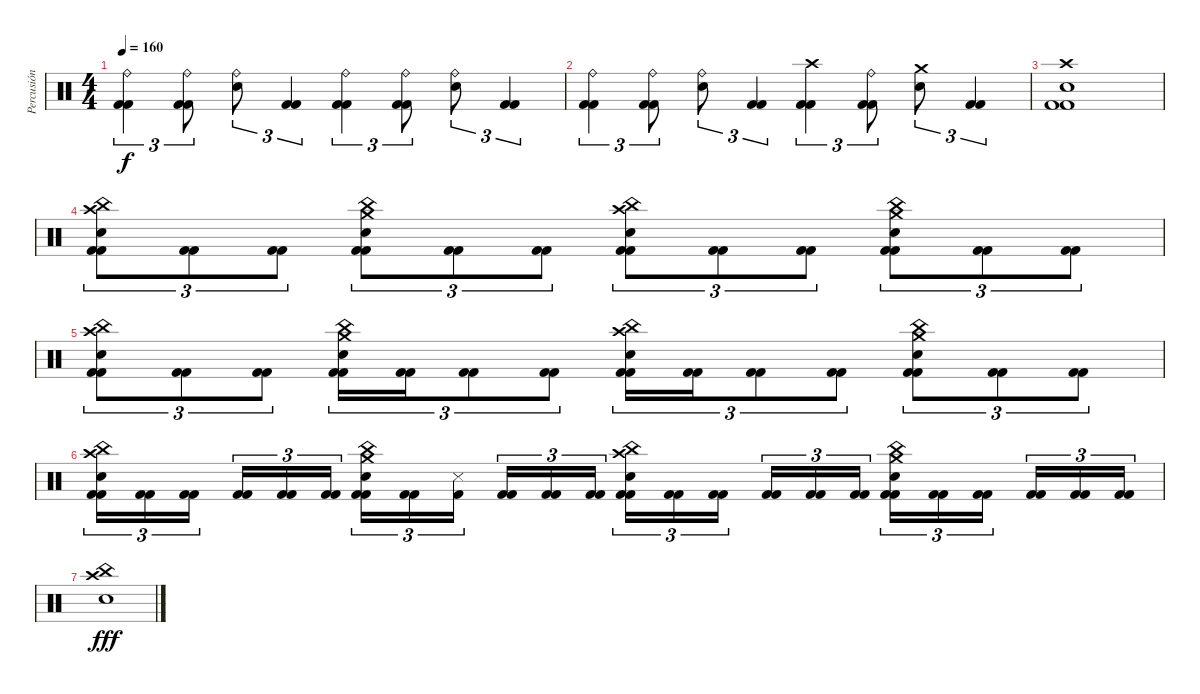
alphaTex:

\track ("Percusión" "Percusión") {instrument percussion}
\staff {score}
\articulation defaults
\ts (4 4)
\tempo 160
\clef neutral
\ks c
("Ride (bell)" "Kick (hit) 2" "Kick (hit) 2").4{tu (3 2) dy f} ("Ride (bell)" "Kick (hit) 2" "Kick (hit) 2").8{tu (3 2)} ("Ride (bell)" "Snare (hit) 2").8{tu (3 2)} ("Kick (hit) 2" "Kick (hit) 2").4{tu (3 2)} ("Ride (bell)" "Kick (hit) 2" "Kick (hit) 2").4{tu (3 2)} ("Ride (bell)" "Kick (hit) 2" "Kick (hit) 2").8{tu (3 2)} ("Ride (bell)" "Snare (hit) 2").8{tu (3 2)} ("Kick (hit) 2" "Kick (hit) 2").4{tu (3 2)} |
("Ride (bell)" "Kick (hit) 2" "Kick (hit) 2").4{tu (3 2)} ("Ride (bell)" "Kick (hit) 2" "Kick (hit) 2").8{tu (3 2)} ("Ride (bell)" "Snare (hit) 2").8{tu (3 2)} ("Kick (hit) 2" "Kick (hit) 2").4{tu (3 2)} ("Crash high (hit)" "Kick (hit) 2" "Kick (hit) 2").4{tu (3 2)} ("Ride (bell)" "Kick (hit) 2" "Kick (hit) 2").8{tu (3 2)} ("Crash medium (hit)" "Snare (hit) 2").8{tu (3 2)} ("Kick (hit) 2" "Kick (hit) 2").4{tu (3 2)} |
("Crash high (hit)" "Snare (hit) 2" "Kick (hit) 2" "Kick (hit) 2").1 |
("Crash high (hit)" "China (hit)" "Snare (hit) 2" "Kick (hit) 2" "Kick (hit) 2").8{tu (3 2)} ("Kick (hit) 2" "Kick (hit) 2").8{tu (3 2)} ("Kick (hit) 2" "Kick (hit) 2").8{tu (3 2)} ("Crash medium (hit)" "China (hit)" "Snare (hit) 2" "Kick (hit) 2" "Kick (hit) 2").8{tu (3 2)} ("Kick (hit) 2" "Kick (hit) 2").8{tu (3 2)} ("Kick (hit) 2" "Kick (hit) 2").8{tu (3 2)} ("Crash high (hit)" "China (hit)" "Snare (hit) 2" "Kick (hit) 2" "Kick (hit) 2").8{tu (3 2)} ("Kick (hit) 2" "Kick (hit) 2").8{tu (3 2)} ("Kick (hit) 2" "Kick (hit) 2").8{tu (3 2)} ("Crash medium (hit)" "China (hit)" "Snare (hit) 2" "Kick (hit) 2" "Kick (hit) 2").8{tu (3 2)} ("Kick (hit) 2" "Kick (hit) 2").8{tu (3 2)} ("Kick (hit) 2" "Kick (hit) 2").8{tu (3 2)} |
("Crash high (hit)" "China (hit)" "Snare (hit) 2" "Kick (hit) 2" "Kick (hit) 2").8{tu (3 2)} ("Kick (hit) 2" "Kick (hit) 2").8{tu (3 2)} ("Kick (hit) 2" "Kick (hit) 2").8{tu (3 2)} ("Crash medium (hit)" "China (hit)" "Snare (hit) 2" "Kick (hit) 2" "Kick (hit) 2").16{tu (3 2)} ("Kick (hit) 2" "Kick (hit) 2").16{tu (3 2)} ("Kick (hit) 2" "Kick (hit) 2").8{tu (3 2)} ("Kick (hit) 2" "Kick (hit) 2").8{tu (3 2)} ("Crash high (hit)" "China (hit)" "Snare (hit) 2" "Kick (hit) 2" "Kick (hit) 2").16{tu (3 2)} ("Kick (hit) 2" "Kick (hit) 2").16{tu (3 2)} ("Kick (hit) 2" "Kick (hit) 2").8{tu (3 2)} ("Kick (hit) 2" "Kick (hit) 2").8{tu (3 2)} ("Crash medium (hit)" "China (hit)" "Snare (hit) 2" "Kick (hit) 2" "Kick (hit) 2").8{tu (3 2)} ("Kick (hit) 2" "Kick (hit) 2").8{tu (3 2)} ("Kick (hit) 2" "Kick (hit) 2").8{tu (3 2)} |
("Crash high (hit)" "China (hit)" "Snare (hit) 2" "Kick (hit) 2" "Kick (hit) 2").16{tu (3 2)} ("Kick (hit) 2" "Kick (hit) 2").16{tu (3 2)} ("Kick (hit) 2" "Kick (hit) 2").16{tu (3 2)} ("Kick (hit) 2" "Kick (hit) 2").16{tu (3 2)} ("Kick (hit) 2" "Kick (hit) 2").16{tu (3 2)} ("Kick (hit) 2" "Kick (hit) 2").16{tu (3 2)} ("Crash medium (hit)" "China (hit)" "Snare (hit) 2" "Kick (hit) 2" "Kick (hit) 2").16{tu (3 2)} ("Kick (hit) 2" "Kick (hit) 2").16{tu (3 2)} ("Snare (side stick) 3" "Kick (hit) 2").16{tu (3 2)} ("Kick (hit) 2" "Kick (hit) 2").16{tu (3 2)} ("Kick (hit) 2" "Kick (hit) 2").16{tu (3 2)} ("Kick (hit) 2" "Kick (hit) 2").16{tu (3 2)} ("Crash high (hit)" "China (hit)" "Snare (hit) 2" "Kick (hit) 2" "Kick (hit) 2").16{tu (3 2)} ("Kick (hit) 2" "Kick (hit) 2").16{tu (3 2)} ("Kick (hit) 2" "Kick (hit) 2").16{tu (3 2)} ("Kick (hit) 2" "Kick (hit) 2").16{tu (3 2)} ("Kick (hit) 2" "Kick (hit) 2").16{tu (3 2)} ("Kick (hit) 2" "Kick (hit) 2").16{tu (3 2)} ("Crash medium (hit)" "China (hit)" "Snare (hit) 2" "Kick (hit) 2" "Kick (hit) 2").16{tu (3 2)} ("Kick (hit) 2" "Kick (hit) 2").16{tu (3 2)} ("Kick (hit) 2" "Kick (hit) 2").16{tu (3 2)} ("Kick (hit) 2" "Kick (hit) 2").16{tu (3 2)} ("Kick (hit) 2" "Kick (hit) 2").16{tu (3 2)} ("Kick (hit) 2" "Kick (hit) 2").16{tu (3 2)} |
("China (hit)" "Crash high (hit)" "Snare (hit) 2").1{dy fff}
